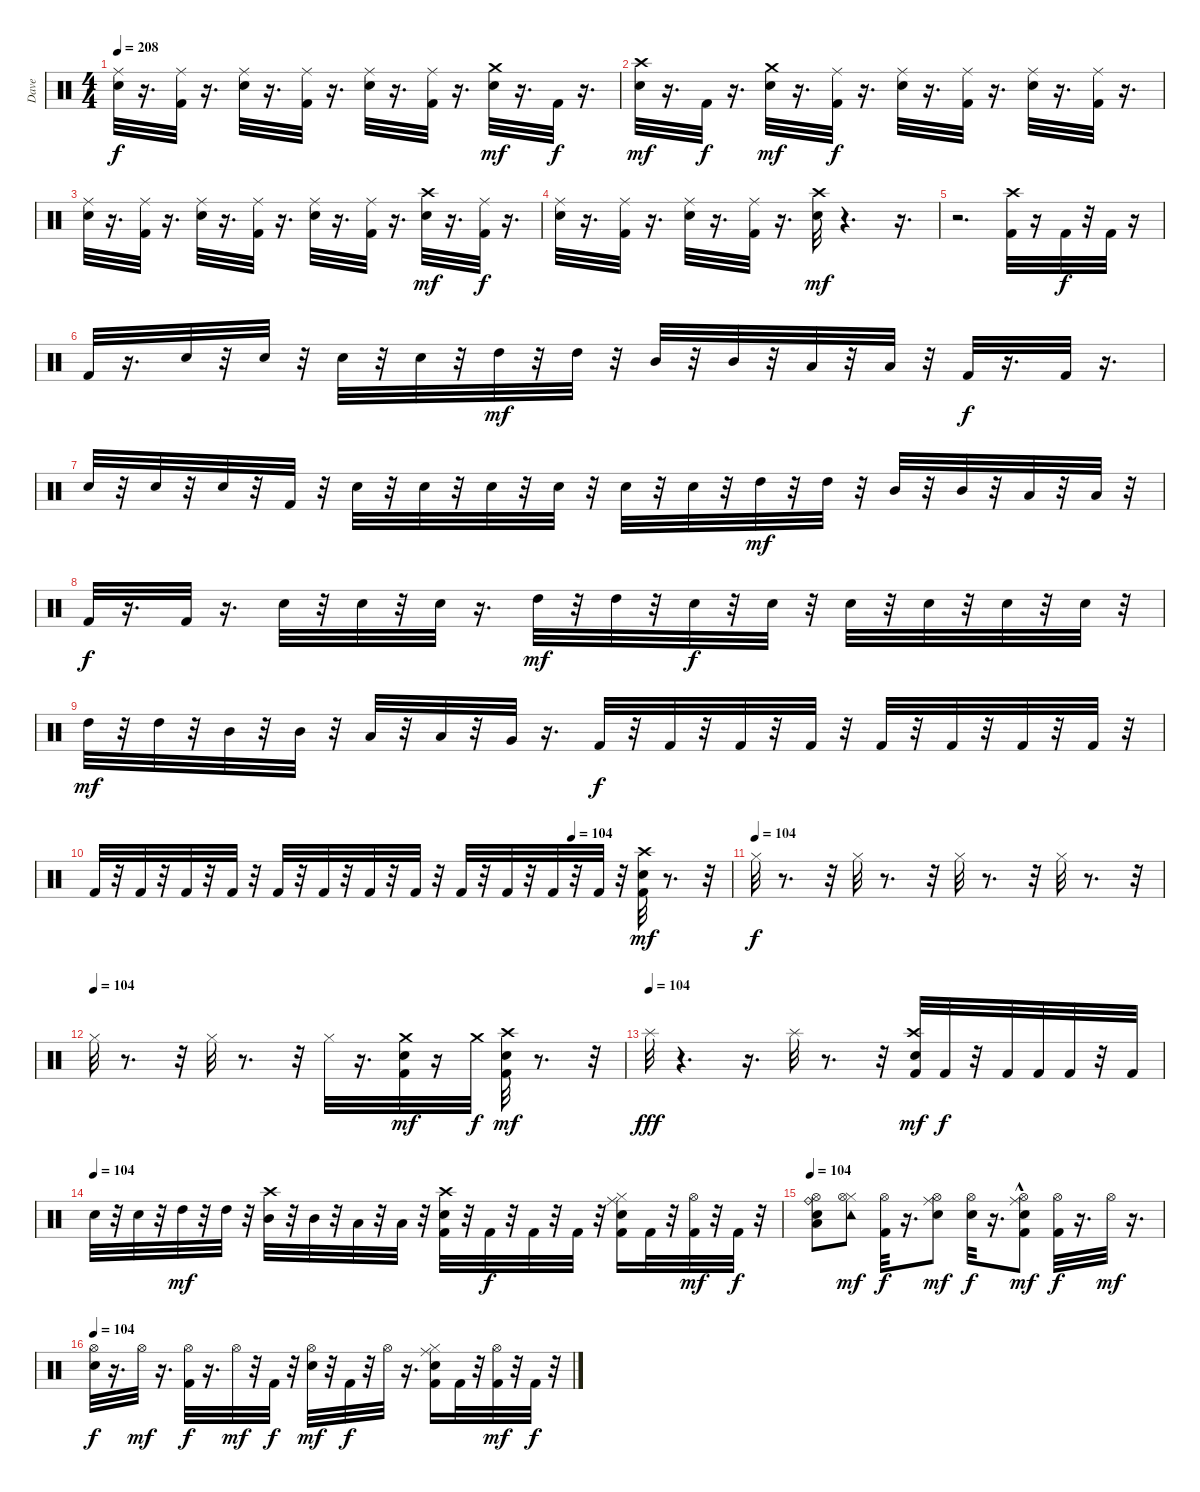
\track ("Dave" "Dave") {instrument percussion}
\staff {score}
\articulation defaults
\ts (4 4)
\tempo 208
\clef neutral
\ks c
("Snare (hit) 2" "Ride (middle)").32{dy f} r.16{d} ("Kick (hit) 2" "Ride (middle)").32 r.16{d} ("Snare (hit) 2" "Ride (middle)").32 r.16{d} ("Kick (hit) 2" "Ride (middle)").32 r.16{d} ("Snare (hit) 2" "Ride (middle)").32 r.16{d} ("Kick (hit) 2" "Ride (middle)").32 r.16{d} ("Snare (hit) 2" "Crash medium (hit)").32{dy mf} r.16{d} "Kick (hit) 2".32{dy f} r.16{d} |
("Snare (hit) 2" "Crash high (hit)").32{dy mf} r.16{d} "Kick (hit) 2".32{dy f} r.16{d} ("Snare (hit) 2" "Crash medium (hit)").32{dy mf} r.16{d} ("Kick (hit) 2" "Ride (middle)").32{dy f} r.16{d} ("Snare (hit) 2" "Ride (middle)").32 r.16{d} ("Kick (hit) 2" "Ride (middle)").32 r.16{d} ("Snare (hit) 2" "Ride (middle)").32 r.16{d} ("Kick (hit) 2" "Ride (middle)").32 r.16{d} |
("Snare (hit) 2" "Ride (middle)").32 r.16{d} ("Kick (hit) 2" "Ride (middle)").32 r.16{d} ("Snare (hit) 2" "Ride (middle)").32 r.16{d} ("Kick (hit) 2" "Ride (middle)").32 r.16{d} ("Snare (hit) 2" "Ride (middle)").32 r.16{d} ("Kick (hit) 2" "Ride (middle)").32 r.16{d} ("Snare (hit) 2" "Crash high (hit)").32{dy mf} r.16{d} ("Kick (hit) 2" "Ride (middle)").32{dy f} r.16{d} |
("Snare (hit) 2" "Ride (middle)").32 r.16{d} ("Kick (hit) 2" "Ride (middle)").32 r.16{d} ("Snare (hit) 2" "Ride (middle)").32 r.16{d} ("Kick (hit) 2" "Ride (middle)").32 r.16{d} ("Snare (hit) 2" "Crash high (hit)").32{dy mf} r.4{d} r.16{d} |
r.2{d} ("Kick (hit) 2" "Crash high (hit)").32 r.16 "Kick (hit) 2".32{dy f} r.32 "Kick (hit) 2".32 r.16 |
"Kick (hit) 2".32 r.16{d} "Electric Snare (hit)".32 r.32 "Electric Snare (hit)".32 r.32 "Electric Snare (hit)".32 r.32 "Electric Snare (hit)".32 r.32 "High Tom (hit)".32{dy mf} r.32 "High Tom (hit)".32 r.32 "Mid Tom (hit)".32 r.32 "Mid Tom (hit)".32 r.32 "Low Tom (hit)".32 r.32 "Low Tom (hit)".32 r.32 "Kick (hit) 2".32{dy f} r.16{d} "Kick (hit) 2".32 r.16{d} |
"Electric Snare (hit)".32 r.32 "Electric Snare (hit)".32 r.32 "Electric Snare (hit)".32 r.32 "Kick (hit) 2".32 r.32 "Electric Snare (hit)".32 r.32 "Electric Snare (hit)".32 r.32 "Electric Snare (hit)".32 r.32 "Electric Snare (hit)".32 r.32 "Electric Snare (hit)".32 r.32 "Electric Snare (hit)".32 r.32 "High Tom (hit)".32{dy mf} r.32 "High Tom (hit)".32 r.32 "Mid Tom (hit)".32 r.32 "Mid Tom (hit)".32 r.32 "Low Tom (hit)".32 r.32 "Low Tom (hit)".32 r.32 |
"Kick (hit) 2".32{dy f} r.16{d} "Kick (hit) 2".32 r.16{d} "Electric Snare (hit)".32 r.32 "Electric Snare (hit)".32 r.32 "Electric Snare (hit)".32 r.16{d} "High Tom (hit)".32{dy mf} r.32 "High Tom (hit)".32 r.32 "Electric Snare (hit)".32{dy f} r.32 "Electric Snare (hit)".32 r.32 "Electric Snare (hit)".32 r.32 "Electric Snare (hit)".32 r.32 "Electric Snare (hit)".32 r.32 "Electric Snare (hit)".32 r.32 |
"High Tom (hit)".32{dy mf} r.32 "High Tom (hit)".32 r.32 "Mid Tom (hit)".32 r.32 "Mid Tom (hit)".32 r.32 "Low Tom (hit)".32 r.32 "Low Tom (hit)".32 r.32 "Very Low Tom (hit)".32 r.16{d} "Kick (hit) 2".32{dy f} r.32 "Kick (hit) 2".32 r.32 "Kick (hit) 2".32 r.32 "Kick (hit) 2".32 r.32 "Kick (hit) 2".32 r.32 "Kick (hit) 2".32 r.32 "Kick (hit) 2".32 r.32 "Kick (hit) 2".32 r.32 |
\tempo (104 0.75)
"Kick (hit) 2".32 r.32 "Kick (hit) 2".32 r.32 "Kick (hit) 2".32 r.32 "Kick (hit) 2".32 r.32 "Kick (hit) 2".32 r.32 "Kick (hit) 2".32 r.32 "Kick (hit) 2".32 r.32 "Kick (hit) 2".32 r.32 "Kick (hit) 2".32 r.32 "Kick (hit) 2".32 r.32 "Kick (hit) 2".32 r.32 "Kick (hit) 2".32 r.32 ("Kick (hit) 2" "Snare (hit) 2" "Crash high (hit)").32{dy mf} r.8{d} r.32 |
\tempo (104)
"Hi-Hat (closed)".32{dy f} r.8{d} r.32 "Hi-Hat (closed)".32 r.8{d} r.32 "Hi-Hat (closed)".32 r.8{d} r.32 "Hi-Hat (closed)".32 r.8{d} r.32 |
\tempo (104)
"Hi-Hat (closed)".32 r.8{d} r.32 "Hi-Hat (closed)".32 r.8{d} r.32 "Hi-Hat (closed)".32 r.16{d} ("Kick (hit) 2" "Snare (hit) 2" "Crash medium (hit)").32{dy mf} r.16 "Crash medium (hit)".32{dy f} ("Kick (hit) 2" "Snare (hit) 2" "Crash high (hit)").32{dy mf} r.8{d} r.32 |
\tempo (104)
"Splash (hit)".32{dy fff} r.4{d} r.16{d} "Splash (hit)".32 r.8{d} r.32 ("Kick (hit) 2" "Electric Snare (hit)" "Crash high (hit)").32{dy mf} "Kick (hit) 2".32{dy f} r.32 "Kick (hit) 2".32 "Kick (hit) 2".32 "Kick (hit) 2".32 r.32 "Kick (hit) 2".32 |
\tempo (104)
"Electric Snare (hit)".32 r.32 "Electric Snare (hit)".32 r.32 "High Tom (hit)".32{dy mf} r.32 "High Tom (hit)".32 r.32 ("Mid Tom (hit)" "Crash high (hit)").32 r.32 "Mid Tom (hit)".32 r.32 "Low Tom (hit)".32 r.32 "Low Tom (hit)".32 r.32 ("Kick (hit) 2" "Snare (hit) 2" "Crash high (hit)").32 r.32 "Kick (hit) 2".32{dy f} r.32 "Kick (hit) 2".32 r.32 "Kick (hit) 2".32 r.32 ("Hand Clap (hit)" "Ride (middle)" "Kick (hit) 2" "Hi-Hat (closed)").16 "Kick (hit) 2".32 r.32 ("Kick (hit) 2" "Hi-Hat (open)").32{dy mf} r.32 "Kick (hit) 2".32{dy f} r.32 |
\tempo 104
("Low Floor Tom (hit)" "Ride (bell)" "Snare (hit) 2" "Hi-Hat (open)").8 ("Hi-Hat (closed)" "Tambourine (hit)" "Hi-Hat (open)").8{dy mf} ("Kick (hit) 2" "Hi-Hat (open)").32{dy f} r.16{d} ("Hand Clap (hit)" "Ride (middle)" "Hi-Hat (open)").8{dy mf} ("Snare (hit) 2" "Hi-Hat (open)").32{dy f} r.16{d} ("Hand Clap (hit)"{hac} "Ride (middle)"{hac} "Kick (hit) 2" "Hi-Hat (open)").8{dy mf} ("Kick (hit) 2" "Hi-Hat (open)").32{dy f} r.16{d} "Hi-Hat (open)".32{dy mf} r.16{d} |
\tempo 104
("Snare (hit) 2" "Hi-Hat (open)").32{dy f} r.16{d} "Hi-Hat (open)".32{dy mf} r.16{d} ("Kick (hit) 2" "Hi-Hat (open)").32{dy f} r.16{d} "Hi-Hat (open)".32{dy mf} r.32 "Kick (hit) 2".32{dy f} r.32 ("Snare (hit) 2" "Hi-Hat (open)").32{dy mf} r.32 "Kick (hit) 2".32{dy f} r.32 "Hi-Hat (open)".32 r.16{d} ("Hand Clap (hit)" "Ride (middle)" "Kick (hit) 2" "Hi-Hat (closed)").16 "Kick (hit) 2".32 r.32 ("Kick (hit) 2" "Hi-Hat (open)").32{dy mf} r.32 "Kick (hit) 2".32{dy f} r.32
